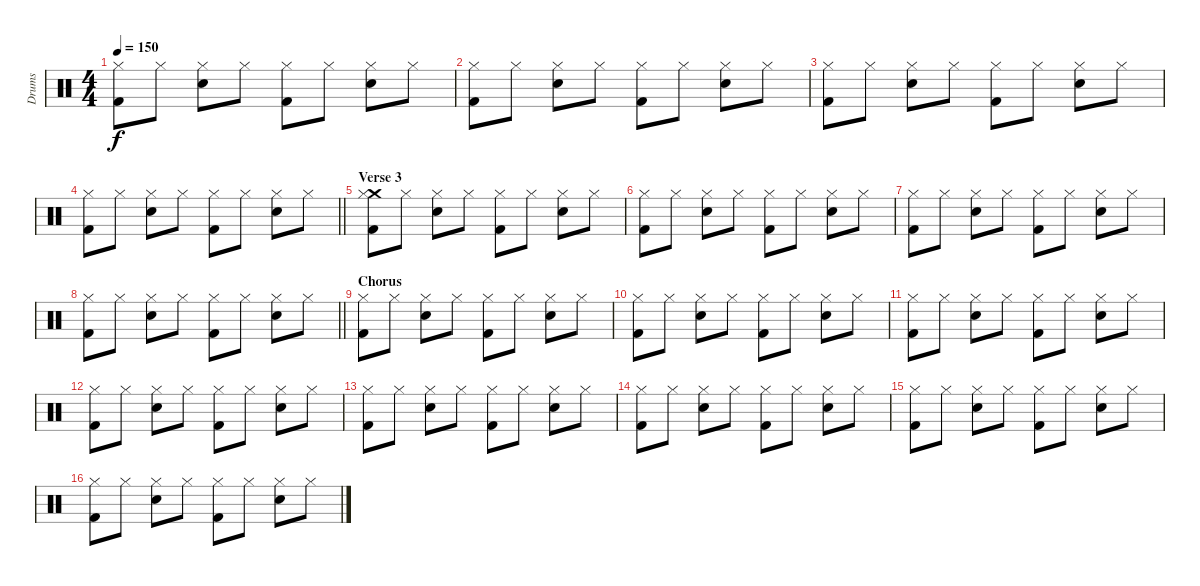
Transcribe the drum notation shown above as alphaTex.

\track ("Drums" "Drums") {instrument percussion}
\staff {score}
\articulation defaults
\ts (4 4)
\tempo 150
\clef neutral
\ks c
("Kick (hit) 2" "Hi-Hat (closed)").8{dy f} "Hi-Hat (closed)".8 ("Snare (hit) 2" "Hi-Hat (closed)").8 "Hi-Hat (closed)".8 ("Kick (hit) 2" "Hi-Hat (closed)").8 "Hi-Hat (closed)".8 ("Snare (hit) 2" "Hi-Hat (closed)").8 "Hi-Hat (closed)".8 |
("Kick (hit) 2" "Hi-Hat (closed)").8 "Hi-Hat (closed)".8 ("Snare (hit) 2" "Hi-Hat (closed)").8 "Hi-Hat (closed)".8 ("Kick (hit) 2" "Hi-Hat (closed)").8 "Hi-Hat (closed)".8 ("Snare (hit) 2" "Hi-Hat (closed)").8 "Hi-Hat (closed)".8 |
("Kick (hit) 2" "Hi-Hat (closed)").8 "Hi-Hat (closed)".8 ("Snare (hit) 2" "Hi-Hat (closed)").8 "Hi-Hat (closed)".8 ("Kick (hit) 2" "Hi-Hat (closed)").8 "Hi-Hat (closed)".8 ("Snare (hit) 2" "Hi-Hat (closed)").8 "Hi-Hat (closed)".8 |
\barLineRight lightlight
("Kick (hit) 2" "Hi-Hat (closed)").8 "Hi-Hat (closed)".8 ("Snare (hit) 2" "Hi-Hat (closed)").8 "Hi-Hat (closed)".8 ("Kick (hit) 2" "Hi-Hat (closed)").8 "Hi-Hat (closed)".8 ("Snare (hit) 2" "Hi-Hat (closed)").8 "Hi-Hat (closed)".8 |
\section ("" "Verse 3")
("Crash medium (hit)" "Kick (hit) 2" "Hi-Hat (closed)").8 "Hi-Hat (closed)".8 ("Snare (hit) 2" "Hi-Hat (closed)").8 "Hi-Hat (closed)".8 ("Kick (hit) 2" "Hi-Hat (closed)").8 "Hi-Hat (closed)".8 ("Snare (hit) 2" "Hi-Hat (closed)").8 "Hi-Hat (closed)".8 |
("Kick (hit) 2" "Hi-Hat (closed)").8 "Hi-Hat (closed)".8 ("Snare (hit) 2" "Hi-Hat (closed)").8 "Hi-Hat (closed)".8 ("Kick (hit) 2" "Hi-Hat (closed)").8 "Hi-Hat (closed)".8 ("Snare (hit) 2" "Hi-Hat (closed)").8 "Hi-Hat (closed)".8 |
("Kick (hit) 2" "Hi-Hat (closed)").8 "Hi-Hat (closed)".8 ("Snare (hit) 2" "Hi-Hat (closed)").8 "Hi-Hat (closed)".8 ("Kick (hit) 2" "Hi-Hat (closed)").8 "Hi-Hat (closed)".8 ("Snare (hit) 2" "Hi-Hat (closed)").8 "Hi-Hat (closed)".8 |
\barLineRight lightlight
("Kick (hit) 2" "Hi-Hat (closed)").8 "Hi-Hat (closed)".8 ("Snare (hit) 2" "Hi-Hat (closed)").8 "Hi-Hat (closed)".8 ("Kick (hit) 2" "Hi-Hat (closed)").8 "Hi-Hat (closed)".8 ("Snare (hit) 2" "Hi-Hat (closed)").8 "Hi-Hat (closed)".8 |
\section ("" "Chorus")
("Kick (hit) 2" "Hi-Hat (closed)").8 "Hi-Hat (closed)".8 ("Snare (hit) 2" "Hi-Hat (closed)").8 "Hi-Hat (closed)".8 ("Kick (hit) 2" "Hi-Hat (closed)").8 "Hi-Hat (closed)".8 ("Snare (hit) 2" "Hi-Hat (closed)").8 "Hi-Hat (closed)".8 |
("Kick (hit) 2" "Hi-Hat (closed)").8 "Hi-Hat (closed)".8 ("Snare (hit) 2" "Hi-Hat (closed)").8 "Hi-Hat (closed)".8 ("Kick (hit) 2" "Hi-Hat (closed)").8 "Hi-Hat (closed)".8 ("Snare (hit) 2" "Hi-Hat (closed)").8 "Hi-Hat (closed)".8 |
("Kick (hit) 2" "Hi-Hat (closed)").8 "Hi-Hat (closed)".8 ("Snare (hit) 2" "Hi-Hat (closed)").8 "Hi-Hat (closed)".8 ("Kick (hit) 2" "Hi-Hat (closed)").8 "Hi-Hat (closed)".8 ("Snare (hit) 2" "Hi-Hat (closed)").8 "Hi-Hat (closed)".8 |
("Kick (hit) 2" "Hi-Hat (closed)").8 "Hi-Hat (closed)".8 ("Snare (hit) 2" "Hi-Hat (closed)").8 "Hi-Hat (closed)".8 ("Kick (hit) 2" "Hi-Hat (closed)").8 "Hi-Hat (closed)".8 ("Snare (hit) 2" "Hi-Hat (closed)").8 "Hi-Hat (closed)".8 |
("Kick (hit) 2" "Hi-Hat (closed)").8 "Hi-Hat (closed)".8 ("Snare (hit) 2" "Hi-Hat (closed)").8 "Hi-Hat (closed)".8 ("Kick (hit) 2" "Hi-Hat (closed)").8 "Hi-Hat (closed)".8 ("Snare (hit) 2" "Hi-Hat (closed)").8 "Hi-Hat (closed)".8 |
("Kick (hit) 2" "Hi-Hat (closed)").8 "Hi-Hat (closed)".8 ("Snare (hit) 2" "Hi-Hat (closed)").8 "Hi-Hat (closed)".8 ("Kick (hit) 2" "Hi-Hat (closed)").8 "Hi-Hat (closed)".8 ("Snare (hit) 2" "Hi-Hat (closed)").8 "Hi-Hat (closed)".8 |
("Kick (hit) 2" "Hi-Hat (closed)").8 "Hi-Hat (closed)".8 ("Snare (hit) 2" "Hi-Hat (closed)").8 "Hi-Hat (closed)".8 ("Kick (hit) 2" "Hi-Hat (closed)").8 "Hi-Hat (closed)".8 ("Snare (hit) 2" "Hi-Hat (closed)").8 "Hi-Hat (closed)".8 |
("Kick (hit) 2" "Hi-Hat (closed)").8 "Hi-Hat (closed)".8 ("Snare (hit) 2" "Hi-Hat (closed)").8 "Hi-Hat (closed)".8 ("Kick (hit) 2" "Hi-Hat (closed)").8 "Hi-Hat (closed)".8 ("Snare (hit) 2" "Hi-Hat (closed)").8 "Hi-Hat (closed)".8
